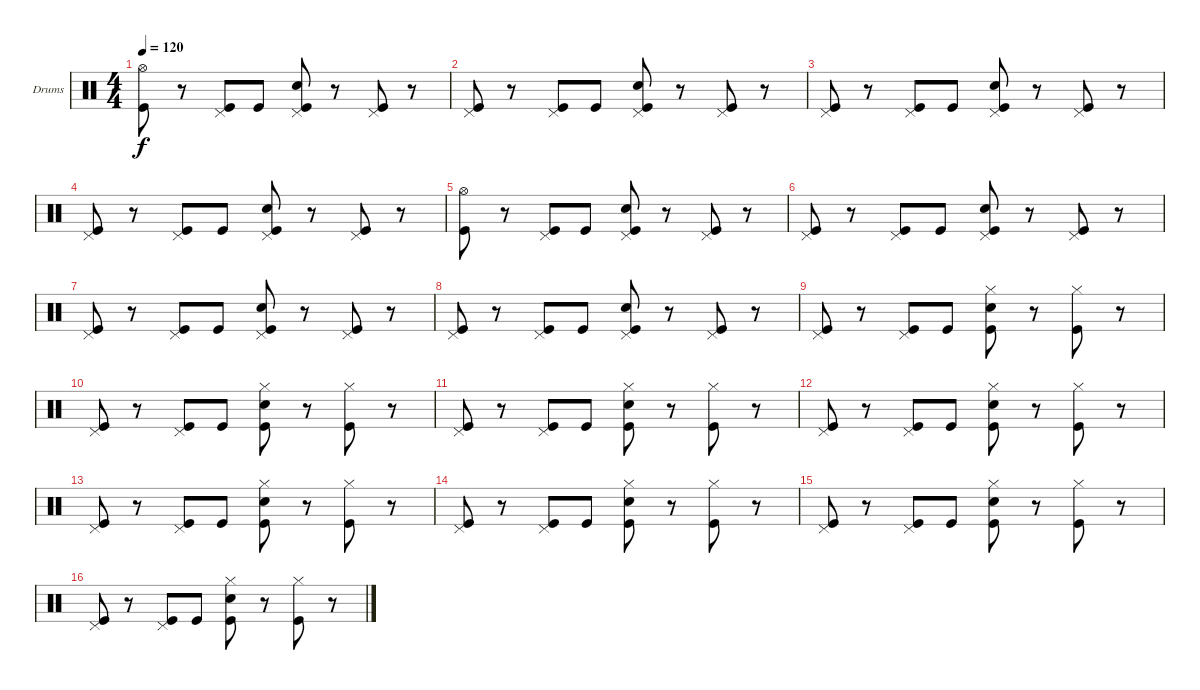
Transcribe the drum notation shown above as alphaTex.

\defaultSystemsLayout 4
\bracketExtendMode groupsimilarinstruments
\firstSystemTrackNameOrientation horizontal
\otherSystemsTrackNameOrientation horizontal
\track ("Drumkit" "Drums") {instrument percussion}
\staff {score}
\articulation defaults
\ts (4 4)
\tempo 120
\clef neutral
\scale
0.333333
\ks c
("Hi-Hat (open)" "Kick (hit)").8{dy f} r.8 ("Pedal Hi-Hat (hit)" "Kick (hit)").8 "Kick (hit)".8 ("Pedal Hi-Hat (hit)" "Kick (hit)" "Snare (hit) 2").8 r.8 ("Pedal Hi-Hat (hit)" "Kick (hit)").8 r.8 |
\scale
0.333333 ("Pedal Hi-Hat (hit)" "Kick (hit)").8 r.8 ("Pedal Hi-Hat (hit)" "Kick (hit)").8 "Kick (hit)".8 ("Pedal Hi-Hat (hit)" "Kick (hit)" "Snare (hit) 2").8 r.8 ("Pedal Hi-Hat (hit)" "Kick (hit)").8 r.8 |
\scale
0.333333 ("Pedal Hi-Hat (hit)" "Kick (hit)").8 r.8 ("Pedal Hi-Hat (hit)" "Kick (hit)").8 "Kick (hit)".8 ("Pedal Hi-Hat (hit)" "Kick (hit)" "Snare (hit) 2").8 r.8 ("Pedal Hi-Hat (hit)" "Kick (hit)").8 r.8 |
\scale
0.333333 ("Pedal Hi-Hat (hit)" "Kick (hit)").8 r.8 ("Pedal Hi-Hat (hit)" "Kick (hit)").8 "Kick (hit)".8 ("Pedal Hi-Hat (hit)" "Kick (hit)" "Snare (hit) 2").8 r.8 ("Pedal Hi-Hat (hit)" "Kick (hit)").8 r.8 |
\scale
0.333333 ("Hi-Hat (open)" "Kick (hit)").8 r.8 ("Pedal Hi-Hat (hit)" "Kick (hit)").8 "Kick (hit)".8 ("Pedal Hi-Hat (hit)" "Kick (hit)" "Snare (hit) 2").8 r.8 ("Pedal Hi-Hat (hit)" "Kick (hit)").8 r.8 |
\scale
0.333333 ("Pedal Hi-Hat (hit)" "Kick (hit)").8 r.8 ("Pedal Hi-Hat (hit)" "Kick (hit)").8 "Kick (hit)".8 ("Pedal Hi-Hat (hit)" "Kick (hit)" "Snare (hit) 2").8 r.8 ("Pedal Hi-Hat (hit)" "Kick (hit)").8 r.8 |
\scale
0.333333 ("Pedal Hi-Hat (hit)" "Kick (hit)").8 r.8 ("Pedal Hi-Hat (hit)" "Kick (hit)").8 "Kick (hit)".8 ("Pedal Hi-Hat (hit)" "Kick (hit)" "Snare (hit) 2").8 r.8 ("Pedal Hi-Hat (hit)" "Kick (hit)").8 r.8 |
\scale
0.333333 ("Pedal Hi-Hat (hit)" "Kick (hit)").8 r.8 ("Pedal Hi-Hat (hit)" "Kick (hit)").8 "Kick (hit)".8 ("Pedal Hi-Hat (hit)" "Kick (hit)" "Snare (hit) 2").8 r.8 ("Pedal Hi-Hat (hit)" "Kick (hit)").8 r.8 |
\scale
0.333333 ("Pedal Hi-Hat (hit)" "Kick (hit)").8 r.8 ("Pedal Hi-Hat (hit)" "Kick (hit)").8 "Kick (hit)".8 ("Hi-Hat (closed)" "Kick (hit)" "Snare (hit) 2").8 r.8 ("Hi-Hat (closed)" "Kick (hit)").8 r.8 |
\scale
0.333333 ("Pedal Hi-Hat (hit)" "Kick (hit)").8 r.8 ("Pedal Hi-Hat (hit)" "Kick (hit)").8 "Kick (hit)".8 ("Hi-Hat (closed)" "Kick (hit)" "Snare (hit) 2").8 r.8 ("Hi-Hat (closed)" "Kick (hit)").8 r.8 |
\scale
0.333333 ("Pedal Hi-Hat (hit)" "Kick (hit)").8 r.8 ("Pedal Hi-Hat (hit)" "Kick (hit)").8 "Kick (hit)".8 ("Hi-Hat (closed)" "Kick (hit)" "Snare (hit) 2").8 r.8 ("Hi-Hat (closed)" "Kick (hit)").8 r.8 |
\scale
0.333333 ("Pedal Hi-Hat (hit)" "Kick (hit)").8 r.8 ("Pedal Hi-Hat (hit)" "Kick (hit)").8 "Kick (hit)".8 ("Hi-Hat (closed)" "Kick (hit)" "Snare (hit) 2").8 r.8 ("Hi-Hat (closed)" "Kick (hit)").8 r.8 |
\scale
0.333333 ("Pedal Hi-Hat (hit)" "Kick (hit)").8 r.8 ("Pedal Hi-Hat (hit)" "Kick (hit)").8 "Kick (hit)".8 ("Hi-Hat (closed)" "Kick (hit)" "Snare (hit) 2").8 r.8 ("Hi-Hat (closed)" "Kick (hit)").8 r.8 |
\scale
0.333333 ("Pedal Hi-Hat (hit)" "Kick (hit)").8 r.8 ("Pedal Hi-Hat (hit)" "Kick (hit)").8 "Kick (hit)".8 ("Hi-Hat (closed)" "Kick (hit)" "Snare (hit) 2").8 r.8 ("Hi-Hat (closed)" "Kick (hit)").8 r.8 |
\scale
0.333333 ("Pedal Hi-Hat (hit)" "Kick (hit)").8 r.8 ("Pedal Hi-Hat (hit)" "Kick (hit)").8 "Kick (hit)".8 ("Hi-Hat (closed)" "Kick (hit)" "Snare (hit) 2").8 r.8 ("Hi-Hat (closed)" "Kick (hit)").8 r.8 |
\scale
0.333333 ("Pedal Hi-Hat (hit)" "Kick (hit)").8 r.8 ("Pedal Hi-Hat (hit)" "Kick (hit)").8 "Kick (hit)".8 ("Hi-Hat (closed)" "Kick (hit)" "Snare (hit) 2").8 r.8 ("Hi-Hat (closed)" "Kick (hit)").8 r.8
